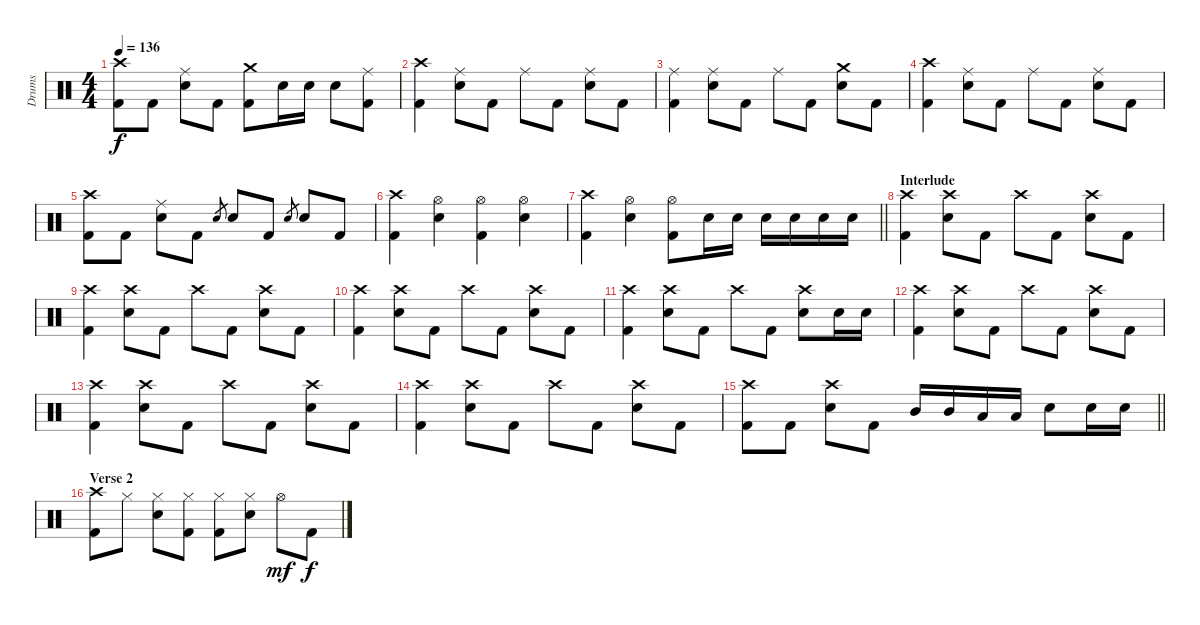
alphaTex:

\track ("Drums" "Drums") {instrument percussion}
\staff {score}
\articulation defaults
\ts (4 4)
\tempo 136
\clef neutral
\ks c
("Crash high (hit)" "Kick (hit) 2").8{dy f} "Kick (hit) 2".8 ("Ride (middle)" "Electric Snare (hit)").8 "Kick (hit) 2".8 ("Crash medium (hit)" "Kick (hit) 2").8 "Electric Snare (hit)".16 "Electric Snare (hit)".16 "Electric Snare (hit)".8 ("Ride (middle)" "Kick (hit) 2").8 |
("Crash high (hit)" "Kick (hit) 2").4 ("Ride (middle)" "Electric Snare (hit)").8 "Kick (hit) 2".8 "Ride (middle)".8 "Kick (hit) 2".8 ("Ride (middle)" "Electric Snare (hit)").8 "Kick (hit) 2".8 |
("Ride (middle)" "Kick (hit) 2").4 ("Ride (middle)" "Electric Snare (hit)").8 "Kick (hit) 2".8 "Ride (middle)".8 "Kick (hit) 2".8 ("Crash medium (hit)" "Electric Snare (hit)").8 "Kick (hit) 2".8 |
("Crash high (hit)" "Kick (hit) 2").4 ("Ride (middle)" "Electric Snare (hit)").8 "Kick (hit) 2".8 "Ride (middle)".8 "Kick (hit) 2".8 ("Ride (middle)" "Electric Snare (hit)").8 "Kick (hit) 2".8 |
("Crash high (hit)" "Kick (hit) 2").8 "Kick (hit) 2".8 ("Ride (middle)" "Electric Snare (hit)").8 "Kick (hit) 2".8 "Electric Snare (hit)".8{gr} "Electric Snare (hit)".8 "Kick (hit) 2".8 "Electric Snare (hit)".8{gr} "Electric Snare (hit)".8 "Kick (hit) 2".8 |
("Crash high (hit)" "Kick (hit) 2").4 ("Hi-Hat (open)" "Electric Snare (hit)").4 ("Hi-Hat (open)" "Kick (hit) 2").4 ("Hi-Hat (open)" "Electric Snare (hit)").4 |
\barLineRight lightlight
("Crash high (hit)" "Kick (hit) 2").4 ("Hi-Hat (open)" "Electric Snare (hit)").4 ("Hi-Hat (open)" "Kick (hit) 2").8 "Electric Snare (hit)".16 "Electric Snare (hit)".16 "Electric Snare (hit)".16 "Electric Snare (hit)".16 "Electric Snare (hit)".16 "Electric Snare (hit)".16 |
\section ("" "Interlude")
("Crash high (hit)" "Kick (hit) 2").4 ("Crash high (hit)" "Electric Snare (hit)").8 "Kick (hit) 2".8 "Crash high (hit)".8 "Kick (hit) 2".8 ("Crash high (hit)" "Electric Snare (hit)").8 "Kick (hit) 2".8 |
("Crash high (hit)" "Kick (hit) 2").4 ("Crash high (hit)" "Electric Snare (hit)").8 "Kick (hit) 2".8 "Crash high (hit)".8 "Kick (hit) 2".8 ("Crash high (hit)" "Electric Snare (hit)").8 "Kick (hit) 2".8 |
("Crash high (hit)" "Kick (hit) 2").4 ("Crash high (hit)" "Electric Snare (hit)").8 "Kick (hit) 2".8 "Crash high (hit)".8 "Kick (hit) 2".8 ("Crash high (hit)" "Electric Snare (hit)").8 "Kick (hit) 2".8 |
("Crash high (hit)" "Kick (hit) 2").4 ("Crash high (hit)" "Electric Snare (hit)").8 "Kick (hit) 2".8 "Crash high (hit)".8 "Kick (hit) 2".8 ("Crash high (hit)" "Electric Snare (hit)").8 "Electric Snare (hit)".16 "Electric Snare (hit)".16 |
("Crash high (hit)" "Kick (hit) 2").4 ("Crash high (hit)" "Electric Snare (hit)").8 "Kick (hit) 2".8 "Crash high (hit)".8 "Kick (hit) 2".8 ("Crash high (hit)" "Electric Snare (hit)").8 "Kick (hit) 2".8 |
("Crash high (hit)" "Kick (hit) 2").4 ("Crash high (hit)" "Electric Snare (hit)").8 "Kick (hit) 2".8 "Crash high (hit)".8 "Kick (hit) 2".8 ("Crash high (hit)" "Electric Snare (hit)").8 "Kick (hit) 2".8 |
("Crash high (hit)" "Kick (hit) 2").4 ("Crash high (hit)" "Electric Snare (hit)").8 "Kick (hit) 2".8 "Crash high (hit)".8 "Kick (hit) 2".8 ("Crash high (hit)" "Electric Snare (hit)").8 "Kick (hit) 2".8 |
\barLineRight lightlight
("Crash high (hit)" "Kick (hit) 2").8 "Kick (hit) 2".8 ("Crash high (hit)" "Electric Snare (hit)").8 "Kick (hit) 2".8 "Mid Tom (hit)".16 "Mid Tom (hit)".16 "Low Tom (hit)".16 "Low Tom (hit)".16 "Electric Snare (hit)".8 "Electric Snare (hit)".16 "Electric Snare (hit)".16 |
\section ("" "Verse 2")
("Crash high (hit)" "Kick (hit) 2").8 "Hi-Hat (closed)".8 ("Hi-Hat (closed)" "Electric Snare (hit)").8 ("Hi-Hat (closed)" "Kick (hit) 2").8 ("Hi-Hat (closed)" "Kick (hit) 2").8 ("Hi-Hat (closed)" "Electric Snare (hit)").8 "Hi-Hat (open)".8{dy mf} "Kick (hit) 2".8{dy f}
